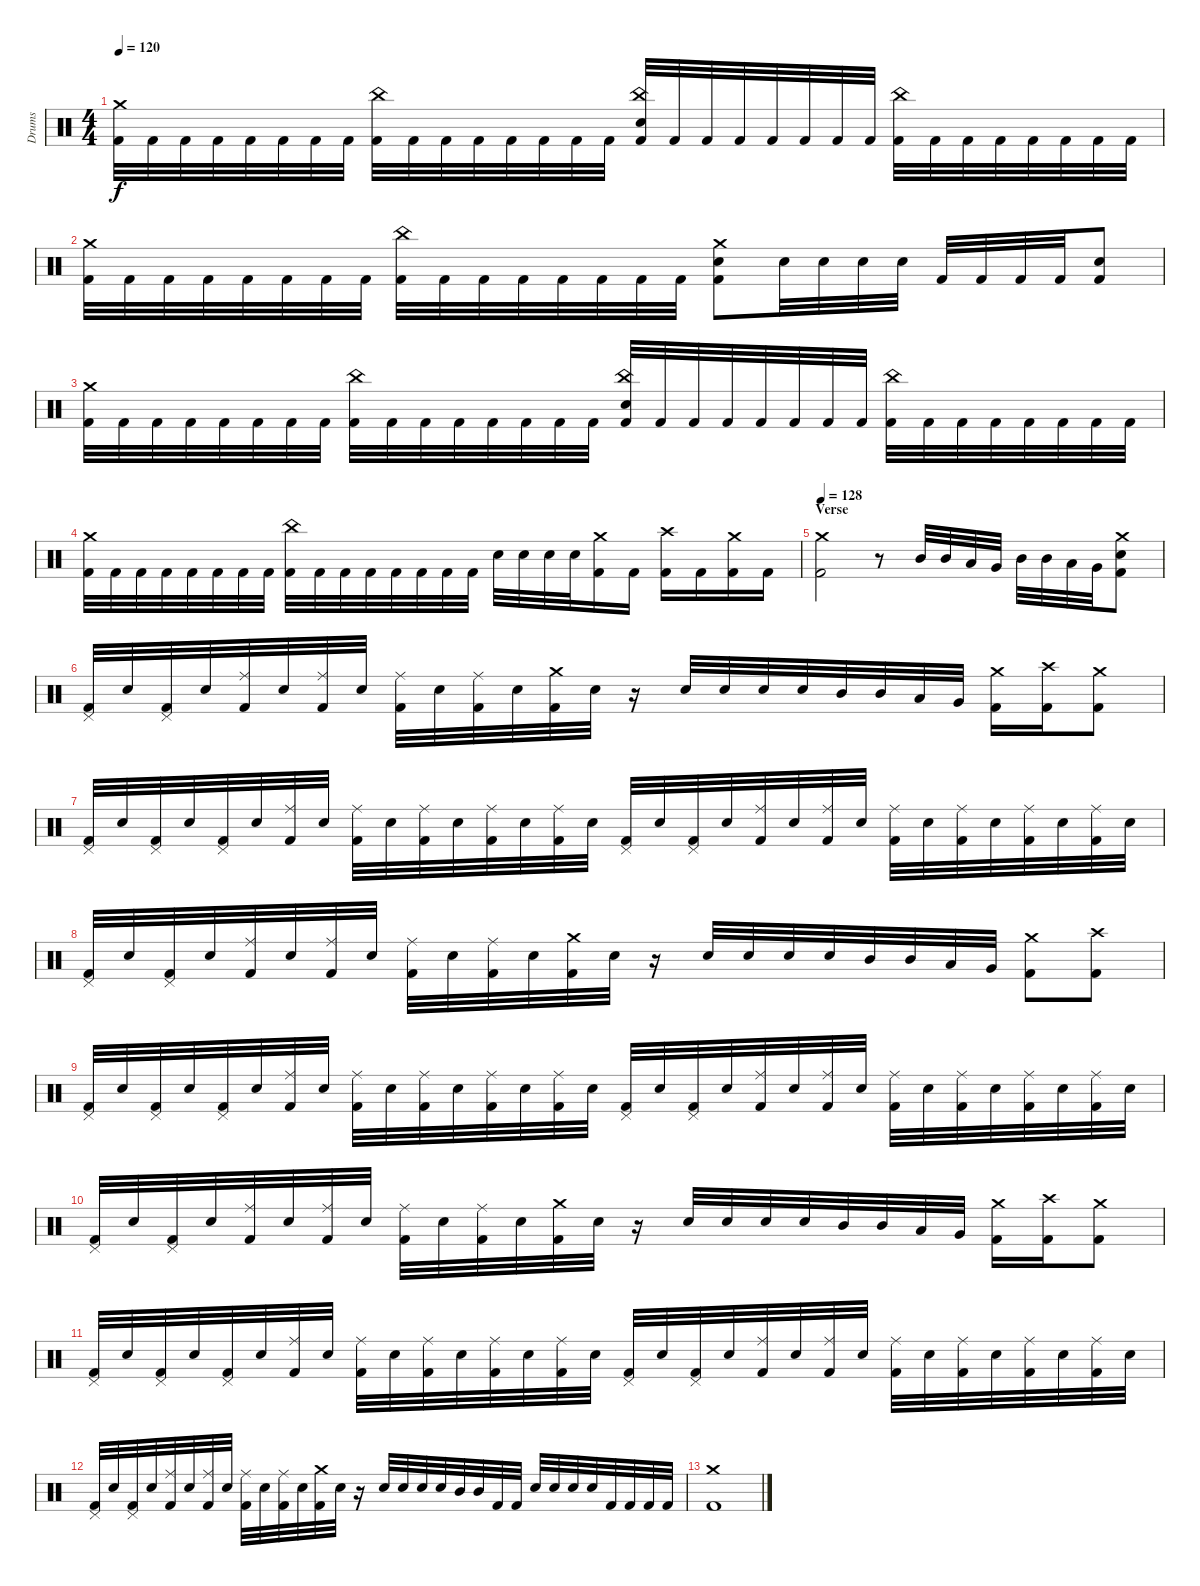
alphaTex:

\track ("Drums" "Drums") {instrument percussion}
\staff {score}
\articulation defaults
\ts (4 4)
\tempo 120
\clef neutral
\ks c
("Crash medium (hit)" "Kick (hit) 2").32{dy f} "Kick (hit) 2".32 "Kick (hit) 2".32 "Kick (hit) 2".32 "Kick (hit) 2".32 "Kick (hit) 2".32 "Kick (hit) 2".32 "Kick (hit) 2".32 ("China (hit)" "Kick (hit) 2").32 "Kick (hit) 2".32 "Kick (hit) 2".32 "Kick (hit) 2".32 "Kick (hit) 2".32 "Kick (hit) 2".32 "Kick (hit) 2".32 "Kick (hit) 2".32 ("China (hit)" "Electric Snare (hit)" "Kick (hit) 2").32 "Kick (hit) 2".32 "Kick (hit) 2".32 "Kick (hit) 2".32 "Kick (hit) 2".32 "Kick (hit) 2".32 "Kick (hit) 2".32 "Kick (hit) 2".32 ("China (hit)" "Kick (hit) 2").32 "Kick (hit) 2".32 "Kick (hit) 2".32 "Kick (hit) 2".32 "Kick (hit) 2".32 "Kick (hit) 2".32 "Kick (hit) 2".32 "Kick (hit) 2".32 |
("Crash medium (hit)" "Kick (hit) 2").32 "Kick (hit) 2".32 "Kick (hit) 2".32 "Kick (hit) 2".32 "Kick (hit) 2".32 "Kick (hit) 2".32 "Kick (hit) 2".32 "Kick (hit) 2".32 ("China (hit)" "Kick (hit) 2").32 "Kick (hit) 2".32 "Kick (hit) 2".32 "Kick (hit) 2".32 "Kick (hit) 2".32 "Kick (hit) 2".32 "Kick (hit) 2".32 "Kick (hit) 2".32 ("Crash medium (hit)" "Electric Snare (hit)" "Kick (hit) 2").8 "Electric Snare (hit)".32 "Electric Snare (hit)".32 "Electric Snare (hit)".32 "Electric Snare (hit)".32 "Kick (hit) 2".32 "Kick (hit) 2".32 "Kick (hit) 2".32 "Kick (hit) 2".32 ("Electric Snare (hit)" "Kick (hit) 2").8 |
("Crash medium (hit)" "Kick (hit) 2").32 "Kick (hit) 2".32 "Kick (hit) 2".32 "Kick (hit) 2".32 "Kick (hit) 2".32 "Kick (hit) 2".32 "Kick (hit) 2".32 "Kick (hit) 2".32 ("China (hit)" "Kick (hit) 2").32 "Kick (hit) 2".32 "Kick (hit) 2".32 "Kick (hit) 2".32 "Kick (hit) 2".32 "Kick (hit) 2".32 "Kick (hit) 2".32 "Kick (hit) 2".32 ("China (hit)" "Electric Snare (hit)" "Kick (hit) 2").32 "Kick (hit) 2".32 "Kick (hit) 2".32 "Kick (hit) 2".32 "Kick (hit) 2".32 "Kick (hit) 2".32 "Kick (hit) 2".32 "Kick (hit) 2".32 ("China (hit)" "Kick (hit) 2").32 "Kick (hit) 2".32 "Kick (hit) 2".32 "Kick (hit) 2".32 "Kick (hit) 2".32 "Kick (hit) 2".32 "Kick (hit) 2".32 "Kick (hit) 2".32 |
("Crash medium (hit)" "Kick (hit) 2").32 "Kick (hit) 2".32 "Kick (hit) 2".32 "Kick (hit) 2".32 "Kick (hit) 2".32 "Kick (hit) 2".32 "Kick (hit) 2".32 "Kick (hit) 2".32 ("China (hit)" "Kick (hit) 2").32 "Kick (hit) 2".32 "Kick (hit) 2".32 "Kick (hit) 2".32 "Kick (hit) 2".32 "Kick (hit) 2".32 "Kick (hit) 2".32 "Kick (hit) 2".32 "Electric Snare (hit)".32 "Electric Snare (hit)".32 "Electric Snare (hit)".32 "Electric Snare (hit)".32 ("Crash medium (hit)" "Kick (hit) 2").16 "Kick (hit) 2".16 ("Crash high (hit)" "Kick (hit) 2").16 "Kick (hit) 2".16 ("Crash medium (hit)" "Kick (hit) 2").16 "Kick (hit) 2".16 |
\section ("" "Verse")
\tempo 128
("Crash medium (hit)" "Kick (hit) 2").2 r.8 "Mid Tom (hit)".32 "Mid Tom (hit)".32 "Low Tom (hit)".32 "Very Low Tom (hit)".32 "Mid Tom (hit)".32 "Mid Tom (hit)".32 "Low Tom (hit)".32 "Very Low Tom (hit)".32 ("Crash medium (hit)" "Electric Snare (hit)" "Kick (hit) 2").8 |
("Pedal Hi-Hat (hit)" "Kick (hit) 2").32 "Electric Snare (hit)".32 ("Pedal Hi-Hat (hit)" "Kick (hit) 2").32 "Electric Snare (hit)".32 ("Ride (middle)" "Kick (hit) 2").32 "Electric Snare (hit)".32 ("Ride (middle)" "Kick (hit) 2").32 "Electric Snare (hit)".32 ("Ride (middle)" "Kick (hit) 2").32 "Electric Snare (hit)".32 ("Ride (middle)" "Kick (hit) 2").32 "Electric Snare (hit)".32 ("Crash medium (hit)" "Kick (hit) 2").32 "Electric Snare (hit)".32 r.16 "Electric Snare (hit)".32 "Electric Snare (hit)".32 "Electric Snare (hit)".32 "Electric Snare (hit)".32 "Mid Tom (hit)".32 "Mid Tom (hit)".32 "Low Tom (hit)".32 "Very Low Tom (hit)".32 ("Crash medium (hit)" "Kick (hit) 2").16 ("Crash high (hit)" "Kick (hit) 2").16 ("Crash medium (hit)" "Kick (hit) 2").8 |
("Pedal Hi-Hat (hit)" "Kick (hit) 2").32 "Electric Snare (hit)".32 ("Pedal Hi-Hat (hit)" "Kick (hit) 2").32 "Electric Snare (hit)".32 ("Pedal Hi-Hat (hit)" "Kick (hit) 2").32 "Electric Snare (hit)".32 ("Ride (middle)" "Kick (hit) 2").32 "Electric Snare (hit)".32 ("Ride (middle)" "Kick (hit) 2").32 "Electric Snare (hit)".32 ("Ride (middle)" "Kick (hit) 2").32 "Electric Snare (hit)".32 ("Ride (middle)" "Kick (hit) 2").32 "Electric Snare (hit)".32 ("Ride (middle)" "Kick (hit) 2").32 "Electric Snare (hit)".32 ("Pedal Hi-Hat (hit)" "Kick (hit) 2").32 "Electric Snare (hit)".32 ("Pedal Hi-Hat (hit)" "Kick (hit) 2").32 "Electric Snare (hit)".32 ("Ride (middle)" "Kick (hit) 2").32 "Electric Snare (hit)".32 ("Ride (middle)" "Kick (hit) 2").32 "Electric Snare (hit)".32 ("Ride (middle)" "Kick (hit) 2").32 "Electric Snare (hit)".32 ("Ride (middle)" "Kick (hit) 2").32 "Electric Snare (hit)".32 ("Ride (middle)" "Kick (hit) 2").32 "Electric Snare (hit)".32 ("Ride (middle)" "Kick (hit) 2").32 "Electric Snare (hit)".32 |
("Pedal Hi-Hat (hit)" "Kick (hit) 2").32 "Electric Snare (hit)".32 ("Pedal Hi-Hat (hit)" "Kick (hit) 2").32 "Electric Snare (hit)".32 ("Ride (middle)" "Kick (hit) 2").32 "Electric Snare (hit)".32 ("Ride (middle)" "Kick (hit) 2").32 "Electric Snare (hit)".32 ("Ride (middle)" "Kick (hit) 2").32 "Electric Snare (hit)".32 ("Ride (middle)" "Kick (hit) 2").32 "Electric Snare (hit)".32 ("Crash medium (hit)" "Kick (hit) 2").32 "Electric Snare (hit)".32 r.16 "Electric Snare (hit)".32 "Electric Snare (hit)".32 "Electric Snare (hit)".32 "Electric Snare (hit)".32 "Mid Tom (hit)".32 "Mid Tom (hit)".32 "Low Tom (hit)".32 "Very Low Tom (hit)".32 ("Crash medium (hit)" "Kick (hit) 2").8 ("Crash high (hit)" "Kick (hit) 2").8 |
("Pedal Hi-Hat (hit)" "Kick (hit) 2").32 "Electric Snare (hit)".32 ("Pedal Hi-Hat (hit)" "Kick (hit) 2").32 "Electric Snare (hit)".32 ("Pedal Hi-Hat (hit)" "Kick (hit) 2").32 "Electric Snare (hit)".32 ("Ride (middle)" "Kick (hit) 2").32 "Electric Snare (hit)".32 ("Ride (middle)" "Kick (hit) 2").32 "Electric Snare (hit)".32 ("Ride (middle)" "Kick (hit) 2").32 "Electric Snare (hit)".32 ("Ride (middle)" "Kick (hit) 2").32 "Electric Snare (hit)".32 ("Ride (middle)" "Kick (hit) 2").32 "Electric Snare (hit)".32 ("Pedal Hi-Hat (hit)" "Kick (hit) 2").32 "Electric Snare (hit)".32 ("Pedal Hi-Hat (hit)" "Kick (hit) 2").32 "Electric Snare (hit)".32 ("Ride (middle)" "Kick (hit) 2").32 "Electric Snare (hit)".32 ("Ride (middle)" "Kick (hit) 2").32 "Electric Snare (hit)".32 ("Ride (middle)" "Kick (hit) 2").32 "Electric Snare (hit)".32 ("Ride (middle)" "Kick (hit) 2").32 "Electric Snare (hit)".32 ("Ride (middle)" "Kick (hit) 2").32 "Electric Snare (hit)".32 ("Ride (middle)" "Kick (hit) 2").32 "Electric Snare (hit)".32 |
("Pedal Hi-Hat (hit)" "Kick (hit) 2").32 "Electric Snare (hit)".32 ("Pedal Hi-Hat (hit)" "Kick (hit) 2").32 "Electric Snare (hit)".32 ("Ride (middle)" "Kick (hit) 2").32 "Electric Snare (hit)".32 ("Ride (middle)" "Kick (hit) 2").32 "Electric Snare (hit)".32 ("Ride (middle)" "Kick (hit) 2").32 "Electric Snare (hit)".32 ("Ride (middle)" "Kick (hit) 2").32 "Electric Snare (hit)".32 ("Crash medium (hit)" "Kick (hit) 2").32 "Electric Snare (hit)".32 r.16 "Electric Snare (hit)".32 "Electric Snare (hit)".32 "Electric Snare (hit)".32 "Electric Snare (hit)".32 "Mid Tom (hit)".32 "Mid Tom (hit)".32 "Low Tom (hit)".32 "Very Low Tom (hit)".32 ("Crash medium (hit)" "Kick (hit) 2").16 ("Crash high (hit)" "Kick (hit) 2").16 ("Crash medium (hit)" "Kick (hit) 2").8 |
("Pedal Hi-Hat (hit)" "Kick (hit) 2").32 "Electric Snare (hit)".32 ("Pedal Hi-Hat (hit)" "Kick (hit) 2").32 "Electric Snare (hit)".32 ("Pedal Hi-Hat (hit)" "Kick (hit) 2").32 "Electric Snare (hit)".32 ("Ride (middle)" "Kick (hit) 2").32 "Electric Snare (hit)".32 ("Ride (middle)" "Kick (hit) 2").32 "Electric Snare (hit)".32 ("Ride (middle)" "Kick (hit) 2").32 "Electric Snare (hit)".32 ("Ride (middle)" "Kick (hit) 2").32 "Electric Snare (hit)".32 ("Ride (middle)" "Kick (hit) 2").32 "Electric Snare (hit)".32 ("Pedal Hi-Hat (hit)" "Kick (hit) 2").32 "Electric Snare (hit)".32 ("Pedal Hi-Hat (hit)" "Kick (hit) 2").32 "Electric Snare (hit)".32 ("Ride (middle)" "Kick (hit) 2").32 "Electric Snare (hit)".32 ("Ride (middle)" "Kick (hit) 2").32 "Electric Snare (hit)".32 ("Ride (middle)" "Kick (hit) 2").32 "Electric Snare (hit)".32 ("Ride (middle)" "Kick (hit) 2").32 "Electric Snare (hit)".32 ("Ride (middle)" "Kick (hit) 2").32 "Electric Snare (hit)".32 ("Ride (middle)" "Kick (hit) 2").32 "Electric Snare (hit)".32 |
("Pedal Hi-Hat (hit)" "Kick (hit) 2").32 "Electric Snare (hit)".32 ("Pedal Hi-Hat (hit)" "Kick (hit) 2").32 "Electric Snare (hit)".32 ("Ride (middle)" "Kick (hit) 2").32 "Electric Snare (hit)".32 ("Ride (middle)" "Kick (hit) 2").32 "Electric Snare (hit)".32 ("Ride (middle)" "Kick (hit) 2").32 "Electric Snare (hit)".32 ("Ride (middle)" "Kick (hit) 2").32 "Electric Snare (hit)".32 ("Crash medium (hit)" "Kick (hit) 2").32 "Electric Snare (hit)".32 r.16 "Electric Snare (hit)".32 "Electric Snare (hit)".32 "Electric Snare (hit)".32 "Electric Snare (hit)".32 "Mid Tom (hit)".32 "Mid Tom (hit)".32 "Kick (hit) 2".32 "Kick (hit) 2".32 "Electric Snare (hit)".32 "Electric Snare (hit)".32 "Electric Snare (hit)".32 "Electric Snare (hit)".32 "Kick (hit) 2".32 "Kick (hit) 2".32 "Kick (hit) 2".32 "Kick (hit) 2".32 |
("Crash medium (hit)" "Kick (hit) 2").1
